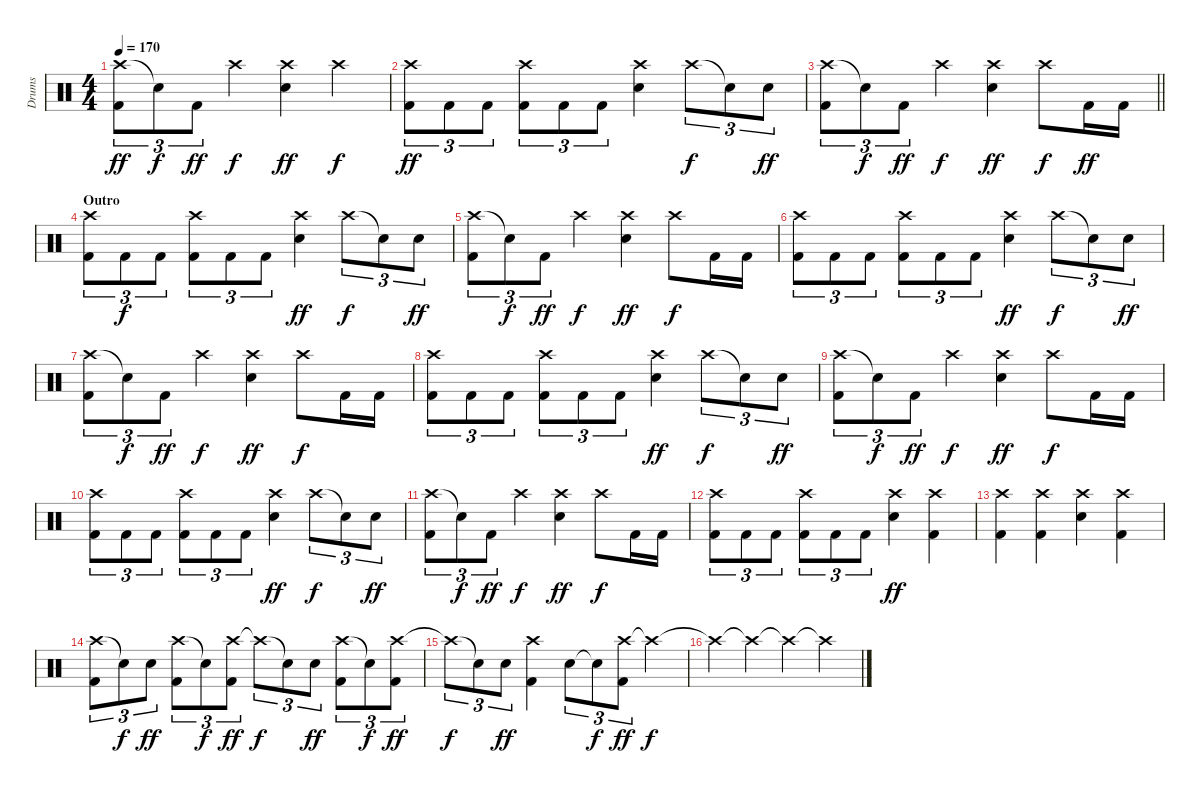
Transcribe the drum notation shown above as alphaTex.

\track ("Drums" "Drums") {instrument percussion}
\staff {score}
\articulation defaults
\ts (4 4)
\tempo 170
\clef neutral
\ks c
("Crash high (hit)" "Kick (hit) 2").8{tu (3 2) dy ff} "Snare (hit)"{t}.8{tu (3 2) dy f} "Kick (hit) 2".8{tu (3 2) dy ff} "Crash high (hit)".4{dy f} ("Crash high (hit)" "Snare (hit) 2").4{dy ff} "Crash high (hit)".4{dy f} |
("Crash high (hit)" "Kick (hit) 2").8{tu (3 2) dy ff} "Kick (hit) 2".8{tu (3 2)} "Kick (hit) 2".8{tu (3 2)} ("Crash high (hit)" "Kick (hit) 2").8{tu (3 2)} "Kick (hit) 2".8{tu (3 2)} "Kick (hit) 2".8{tu (3 2)} ("Crash high (hit)" "Snare (hit) 2").4 "Crash high (hit)".8{tu (3 2) dy f} "Snare (hit)"{t}.8{tu (3 2)} "Snare (hit) 2".8{tu (3 2) dy ff} |
\barLineRight lightlight
("Crash high (hit)" "Kick (hit) 2").8{tu (3 2)} "Snare (hit)"{t}.8{tu (3 2) dy f} "Kick (hit) 2".8{tu (3 2) dy ff} "Crash high (hit)".4{dy f} ("Crash high (hit)" "Snare (hit) 2").4{dy ff} "Crash high (hit)".8{dy f} "Kick (hit) 2".16{dy ff} "Kick (hit) 2".16 |
\section ("" "Outro")
("Crash high (hit)" "Kick (hit) 2").8{tu (3 2)} "Kick (hit) 2".8{tu (3 2) dy f} "Kick (hit) 2".8{tu (3 2)} ("Crash high (hit)" "Kick (hit) 2").8{tu (3 2)} "Kick (hit) 2".8{tu (3 2)} "Kick (hit) 2".8{tu (3 2)} ("Crash high (hit)" "Snare (hit) 2").4{dy ff} "Crash high (hit)".8{tu (3 2) dy f} "Snare (hit)"{t}.8{tu (3 2)} "Snare (hit) 2".8{tu (3 2) dy ff} |
("Crash high (hit)" "Kick (hit) 2").8{tu (3 2)} "Snare (hit)"{t}.8{tu (3 2) dy f} "Kick (hit) 2".8{tu (3 2) dy ff} "Crash high (hit)".4{dy f} ("Crash high (hit)" "Snare (hit) 2").4{dy ff} "Crash high (hit)".8{dy f} "Kick (hit) 2".16 "Kick (hit) 2".16 |
("Crash high (hit)" "Kick (hit) 2").8{tu (3 2)} "Kick (hit) 2".8{tu (3 2)} "Kick (hit) 2".8{tu (3 2)} ("Crash high (hit)" "Kick (hit) 2").8{tu (3 2)} "Kick (hit) 2".8{tu (3 2)} "Kick (hit) 2".8{tu (3 2)} ("Crash high (hit)" "Snare (hit) 2").4{dy ff} "Crash high (hit)".8{tu (3 2) dy f} "Snare (hit)"{t}.8{tu (3 2)} "Snare (hit) 2".8{tu (3 2) dy ff} |
("Crash high (hit)" "Kick (hit) 2").8{tu (3 2)} "Snare (hit)"{t}.8{tu (3 2) dy f} "Kick (hit) 2".8{tu (3 2) dy ff} "Crash high (hit)".4{dy f} ("Crash high (hit)" "Snare (hit) 2").4{dy ff} "Crash high (hit)".8{dy f} "Kick (hit) 2".16 "Kick (hit) 2".16 |
("Crash high (hit)" "Kick (hit) 2").8{tu (3 2)} "Kick (hit) 2".8{tu (3 2)} "Kick (hit) 2".8{tu (3 2)} ("Crash high (hit)" "Kick (hit) 2").8{tu (3 2)} "Kick (hit) 2".8{tu (3 2)} "Kick (hit) 2".8{tu (3 2)} ("Crash high (hit)" "Snare (hit) 2").4{dy ff} "Crash high (hit)".8{tu (3 2) dy f} "Snare (hit)"{t}.8{tu (3 2)} "Snare (hit) 2".8{tu (3 2) dy ff} |
("Crash high (hit)" "Kick (hit) 2").8{tu (3 2)} "Snare (hit)"{t}.8{tu (3 2) dy f} "Kick (hit) 2".8{tu (3 2) dy ff} "Crash high (hit)".4{dy f} ("Crash high (hit)" "Snare (hit) 2").4{dy ff} "Crash high (hit)".8{dy f} "Kick (hit) 2".16 "Kick (hit) 2".16 |
("Crash high (hit)" "Kick (hit) 2").8{tu (3 2)} "Kick (hit) 2".8{tu (3 2)} "Kick (hit) 2".8{tu (3 2)} ("Crash high (hit)" "Kick (hit) 2").8{tu (3 2)} "Kick (hit) 2".8{tu (3 2)} "Kick (hit) 2".8{tu (3 2)} ("Crash high (hit)" "Snare (hit) 2").4{dy ff} "Crash high (hit)".8{tu (3 2) dy f} "Snare (hit)"{t}.8{tu (3 2)} "Snare (hit) 2".8{tu (3 2) dy ff} |
("Crash high (hit)" "Kick (hit) 2").8{tu (3 2)} "Snare (hit)"{t}.8{tu (3 2) dy f} "Kick (hit) 2".8{tu (3 2) dy ff} "Crash high (hit)".4{dy f} ("Crash high (hit)" "Snare (hit) 2").4{dy ff} "Crash high (hit)".8{dy f} "Kick (hit) 2".16 "Kick (hit) 2".16 |
("Crash high (hit)" "Kick (hit) 2").8{tu (3 2)} "Kick (hit) 2".8{tu (3 2)} "Kick (hit) 2".8{tu (3 2)} ("Crash high (hit)" "Kick (hit) 2").8{tu (3 2)} "Kick (hit) 2".8{tu (3 2)} "Kick (hit) 2".8{tu (3 2)} ("Crash high (hit)" "Snare (hit) 2").4{dy ff} ("Crash high (hit)" "Kick (hit) 2").4 |
("Crash high (hit)" "Kick (hit) 2").4 ("Crash high (hit)" "Kick (hit) 2").4 ("Crash high (hit)" "Snare (hit) 2").4 ("Crash high (hit)" "Kick (hit) 2").4 |
("Crash high (hit)" "Kick (hit) 2").8{tu (3 2)} "Snare (hit)"{t}.8{tu (3 2) dy f} "Snare (hit) 2".8{tu (3 2) dy ff} ("Crash high (hit)" "Kick (hit) 2").8{tu (3 2)} "Snare (hit)"{t}.8{tu (3 2) dy f} ("Crash high (hit)" "Kick (hit) 2").8{tu (3 2) dy ff} "Crash high (hit)"{t}.8{tu (3 2) dy f} "Snare (hit)"{t}.8{tu (3 2)} "Snare (hit) 2".8{tu (3 2) dy ff} ("Crash high (hit)" "Kick (hit) 2").8{tu (3 2)} "Snare (hit)"{t}.8{tu (3 2) dy f} ("Crash high (hit)" "Kick (hit) 2").8{tu (3 2) dy ff} |
"Crash high (hit)"{t}.8{tu (3 2) dy f} "Snare (hit)"{t}.8{tu (3 2)} "Snare (hit) 2".8{tu (3 2) dy ff} ("Crash high (hit)" "Kick (hit) 2").4 "Snare (hit) 2".8{tu (3 2)} "Snare (hit)"{t}.8{tu (3 2) dy f} ("Crash high (hit)" "Kick (hit) 2").8{tu (3 2) dy ff} "Crash high (hit)"{t}.4{dy f} |
"Crash high (hit)"{t}.4 "Crash high (hit)"{t}.4 "Crash high (hit)"{t}.4 "Crash high (hit)"{t}.4
